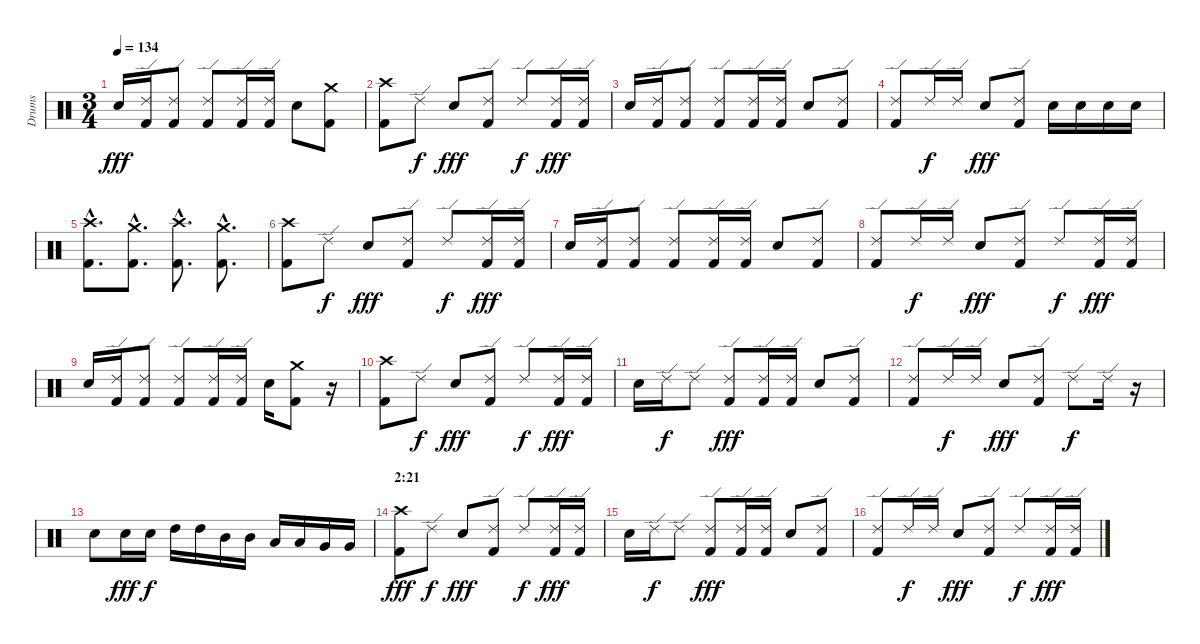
\track ("Drums" "Drums") {instrument percussion}
\staff {score}
\articulation defaults
\ts (3 4)
\tempo 134
\clef neutral
\ks c "Snare (hit) 2".16{dy fff}
("Ride (edge) 2" "Kick (hit) 2").16 ("Ride (edge) 2" "Kick (hit) 2").8 ("Ride (edge) 2" "Kick (hit) 2").8 ("Ride (edge) 2" "Kick (hit) 2").16 ("Ride (edge) 2" "Kick (hit) 2").16 "Snare (hit) 2".8 ("Crash medium (hit)" "Kick (hit) 2").8 |
("Kick (hit) 2" "Crash high (hit)").8 "Ride (edge) 2".8{dy f} "Snare (hit) 2".8{dy fff} ("Ride (edge) 2" "Kick (hit) 2").8 "Ride (edge) 2".8{dy f} ("Ride (edge) 2" "Kick (hit) 2").16{dy fff} ("Ride (edge) 2" "Kick (hit) 2").16 |
"Snare (hit) 2".16 ("Ride (edge) 2" "Kick (hit) 2").16 ("Ride (edge) 2" "Kick (hit) 2").8 ("Ride (edge) 2" "Kick (hit) 2").8 ("Ride (edge) 2" "Kick (hit) 2").16 ("Ride (edge) 2" "Kick (hit) 2").16 "Snare (hit) 2".8 ("Ride (edge) 2" "Kick (hit) 2").8 |
("Ride (edge) 2" "Kick (hit) 2").8 "Ride (edge) 2".16{dy f} "Ride (edge) 2".16 "Snare (hit) 2".8{dy fff} ("Ride (edge) 2" "Kick (hit) 2").8 "Snare (hit) 2".16 "Snare (hit) 2".16 "Snare (hit) 2".16 "Snare (hit) 2".16 |
("Kick (hit) 2"{hac} "Crash high (hit)"{hac}).8{d} ("Crash medium (hit)"{hac} "Kick (hit) 2"{hac}).8{d} ("Kick (hit) 2"{hac} "Crash high (hit)"{hac}).8{d} ("Crash medium (hit)"{hac} "Kick (hit) 2"{hac}).8{d} |
\section ("" "")
("Kick (hit) 2" "Crash high (hit)").8 "Ride (edge) 2".8{dy f} "Snare (hit) 2".8{dy fff} ("Ride (edge) 2" "Kick (hit) 2").8 "Ride (edge) 2".8{dy f} ("Ride (edge) 2" "Kick (hit) 2").16{dy fff} ("Ride (edge) 2" "Kick (hit) 2").16 |
\section ("" "")
"Snare (hit) 2".16 ("Ride (edge) 2" "Kick (hit) 2").16 ("Ride (edge) 2" "Kick (hit) 2").8 ("Ride (edge) 2" "Kick (hit) 2").8 ("Ride (edge) 2" "Kick (hit) 2").16 ("Ride (edge) 2" "Kick (hit) 2").16 "Snare (hit) 2".8 ("Ride (edge) 2" "Kick (hit) 2").8 |
("Ride (edge) 2" "Kick (hit) 2").8 "Ride (edge) 2".16{dy f} "Ride (edge) 2".16 "Snare (hit) 2".8{dy fff} ("Ride (edge) 2" "Kick (hit) 2").8 "Ride (edge) 2".8{dy f} ("Ride (edge) 2" "Kick (hit) 2").16{dy fff} ("Ride (edge) 2" "Kick (hit) 2").16 |
"Snare (hit) 2".16 ("Ride (edge) 2" "Kick (hit) 2").16 ("Ride (edge) 2" "Kick (hit) 2").8 ("Ride (edge) 2" "Kick (hit) 2").8 ("Ride (edge) 2" "Kick (hit) 2").16 ("Ride (edge) 2" "Kick (hit) 2").16 "Snare (hit) 2".16 ("Crash medium (hit)" "Kick (hit) 2").8 r.16 |
("Kick (hit) 2" "Crash high (hit)").8 "Ride (edge) 2".8{dy f} "Snare (hit) 2".8{dy fff} ("Ride (edge) 2" "Kick (hit) 2").8 "Ride (edge) 2".8{dy f} ("Ride (edge) 2" "Kick (hit) 2").16{dy fff} ("Ride (edge) 2" "Kick (hit) 2").16 |
"Snare (hit) 2".16 "Ride (edge) 2".16{dy f} "Ride (edge) 2".8 ("Ride (edge) 2" "Kick (hit) 2").8{dy fff} ("Ride (edge) 2" "Kick (hit) 2").16 ("Ride (edge) 2" "Kick (hit) 2").16 "Snare (hit) 2".8 ("Ride (edge) 2" "Kick (hit) 2").8 |
("Ride (edge) 2" "Kick (hit) 2").8 "Ride (edge) 2".16{dy f} "Ride (edge) 2".16 "Snare (hit) 2".8{dy fff} ("Ride (edge) 2" "Kick (hit) 2").8 "Ride (edge) 2".8{dy f} "Ride (edge) 2".16 r.16 |
"Snare (hit) 2".8 "Snare (hit) 2".16{dy fff} "Snare (hit) 2".16{dy f} "High Tom (hit)".16 "High Tom (hit)".16 "Mid Tom (hit)".16 "Mid Tom (hit)".16 "Low Tom (hit)".16 "Low Tom (hit)".16 "Very Low Tom (hit)".16 "Very Low Tom (hit)".16 |
\section ("" "2:21")
("Kick (hit) 2" "Crash high (hit)").8{dy fff} "Ride (edge) 2".8{dy f} "Snare (hit) 2".8{dy fff} ("Ride (edge) 2" "Kick (hit) 2").8 "Ride (edge) 2".8{dy f} ("Ride (edge) 2" "Kick (hit) 2").16{dy fff} ("Ride (edge) 2" "Kick (hit) 2").16 |
"Snare (hit) 2".16 "Ride (edge) 2".16{dy f} "Ride (edge) 2".8 ("Ride (edge) 2" "Kick (hit) 2").8{dy fff} ("Ride (edge) 2" "Kick (hit) 2").16 ("Ride (edge) 2" "Kick (hit) 2").16 "Snare (hit) 2".8 ("Ride (edge) 2" "Kick (hit) 2").8 |
("Ride (edge) 2" "Kick (hit) 2").8 "Ride (edge) 2".16{dy f} "Ride (edge) 2".16 "Snare (hit) 2".8{dy fff} ("Ride (edge) 2" "Kick (hit) 2").8 "Ride (edge) 2".8{dy f} ("Ride (edge) 2" "Kick (hit) 2").16{dy fff} ("Ride (edge) 2" "Kick (hit) 2").16
